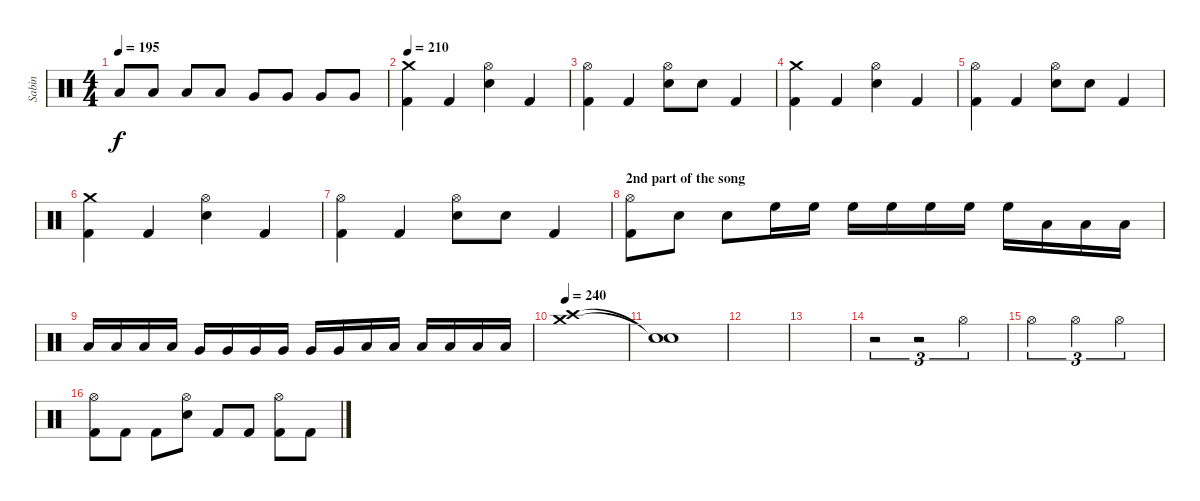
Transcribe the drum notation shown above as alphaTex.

\track ("Sabin" "Sabin") {instrument percussion}
\staff {score}
\articulation defaults
\ts (4 4)
\tempo 195
\clef neutral
\ks c "Low Tom (hit)".8{dy f} "Low Tom (hit)".8 "Low Tom (hit)".8 "Low Tom (hit)".8 "Very Low Tom (hit)".8 "Very Low Tom (hit)".8 "Very Low Tom (hit)".8 "Very Low Tom (hit)".8
|
\tempo 210
("Crash medium (hit)" "Kick (hit) 2").4 "Kick (hit) 2".4 ("Electric Snare (hit)" "Hi-Hat (open)").4 "Kick (hit) 2".4 |
("Hi-Hat (open)" "Kick (hit) 2").4 "Kick (hit) 2".4 ("Electric Snare (hit)" "Hi-Hat (open)").8 "Electric Snare (hit)".8 "Kick (hit) 2".4 |
("Crash medium (hit)" "Kick (hit) 2").4 "Kick (hit) 2".4 ("Electric Snare (hit)" "Hi-Hat (open)").4 "Kick (hit) 2".4 |
("Hi-Hat (open)" "Kick (hit) 2").4 "Kick (hit) 2".4 ("Electric Snare (hit)" "Hi-Hat (open)").8 "Electric Snare (hit)".8 "Kick (hit) 2".4 |
("Crash medium (hit)" "Kick (hit) 2").4 "Kick (hit) 2".4 ("Electric Snare (hit)" "Hi-Hat (open)").4 "Kick (hit) 2".4 |
("Hi-Hat (open)" "Kick (hit) 2").4 "Kick (hit) 2".4 ("Electric Snare (hit)" "Hi-Hat (open)").8 "Electric Snare (hit)".8 "Kick (hit) 2".4 |
\section ("" "2nd part of the song")
("Hi-Hat (open)" "Kick (hit) 2").8 "Electric Snare (hit)".8 "Electric Snare (hit)".8 "High Floor Tom (hit)".16 "High Floor Tom (hit)".16 "High Floor Tom (hit)".16 "High Floor Tom (hit)".16 "High Floor Tom (hit)".16 "High Floor Tom (hit)".16 "High Floor Tom (hit)".16 "Low Tom (hit)".16 "Low Tom (hit)".16 "Low Tom (hit)".16 |
"Low Tom (hit)".16 "Low Tom (hit)".16 "Low Tom (hit)".16 "Low Tom (hit)".16 "Very Low Tom (hit)".16 "Very Low Tom (hit)".16 "Very Low Tom (hit)".16 "Very Low Tom (hit)".16 "Very Low Tom (hit)".16 "Very Low Tom (hit)".16 "Low Floor Tom (hit)".16 "Low Floor Tom (hit)".16 "Low Floor Tom (hit)".16 "Low Floor Tom (hit)".16 "Low Floor Tom (hit)".16 "Low Floor Tom (hit)".16 |
\tempo 240
("Crash medium (hit)" "Crash high (hit)").1 |
("Snare (hit)"{t} "Snare (hit)"{t}).1 |
|
|
r.2{tu (3 2)} r.2{tu (3 2)} "Hi-Hat (open)".2{tu (3 2)} |
"Hi-Hat (open)".2{tu (3 2)} "Hi-Hat (open)".2{tu (3 2)} "Hi-Hat (open)".2{tu (3 2)} |
("Hi-Hat (open)" "Kick (hit) 2").8 "Kick (hit) 2".8 "Kick (hit) 2".8 ("Hi-Hat (open)" "Snare (hit) 2").8 "Kick (hit) 2".8 "Kick (hit) 2".8 ("Hi-Hat (open)" "Kick (hit) 2").8 "Kick (hit) 2".8
